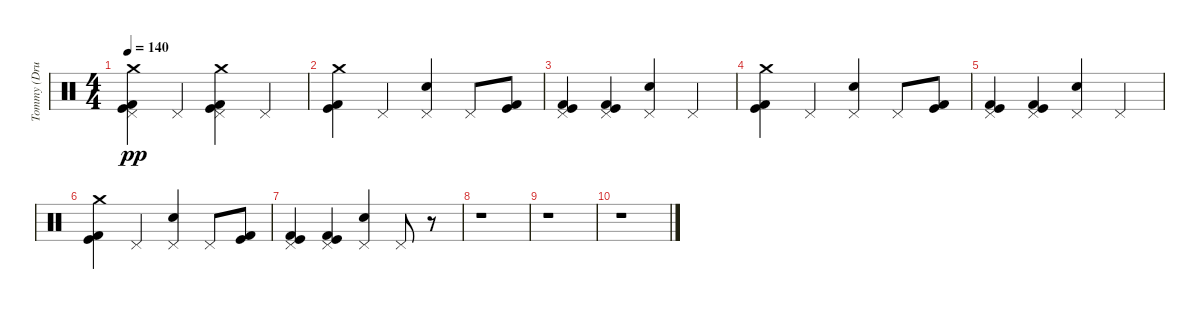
\track ("Tommy (Drums)" "Tommy (Dru") {instrument percussion}
\staff {score}
\articulation defaults
\ts (4 4)
\tempo 140
\clef neutral
\ks c
("Crash medium (hit)" "Pedal Hi-Hat (hit)" "Kick (hit)" "Kick (hit) 2").4{dy pp} "Pedal Hi-Hat (hit)".4 ("Crash medium (hit)" "Kick (hit) 2" "Kick (hit)" "Pedal Hi-Hat (hit)").4 "Pedal Hi-Hat (hit)".4 |
("Kick (hit)" "Crash medium (hit)" "Kick (hit) 2").4 "Pedal Hi-Hat (hit)".4 ("Pedal Hi-Hat (hit)" "Snare (hit) 2").4 "Pedal Hi-Hat (hit)".8 ("Kick (hit)" "Kick (hit) 2").8 |
("Pedal Hi-Hat (hit)" "Kick (hit)" "Kick (hit) 2").4 ("Pedal Hi-Hat (hit)" "Kick (hit)" "Kick (hit) 2").4 ("Snare (hit) 2" "Pedal Hi-Hat (hit)").4 "Pedal Hi-Hat (hit)".4 |
("Kick (hit)" "Crash medium (hit)" "Kick (hit) 2").4 "Pedal Hi-Hat (hit)".4 ("Pedal Hi-Hat (hit)" "Snare (hit) 2").4 "Pedal Hi-Hat (hit)".8 ("Kick (hit)" "Kick (hit) 2").8 |
("Pedal Hi-Hat (hit)" "Kick (hit)" "Kick (hit) 2").4 ("Pedal Hi-Hat (hit)" "Kick (hit)" "Kick (hit) 2").4 ("Snare (hit) 2" "Pedal Hi-Hat (hit)").4 "Pedal Hi-Hat (hit)".4 |
("Kick (hit)" "Crash medium (hit)" "Kick (hit) 2").4 "Pedal Hi-Hat (hit)".4 ("Pedal Hi-Hat (hit)" "Snare (hit) 2").4 "Pedal Hi-Hat (hit)".8 ("Kick (hit)" "Kick (hit) 2").8 |
("Pedal Hi-Hat (hit)" "Kick (hit)" "Kick (hit) 2").4 ("Pedal Hi-Hat (hit)" "Kick (hit)" "Kick (hit) 2").4 ("Snare (hit) 2" "Pedal Hi-Hat (hit)").4 "Pedal Hi-Hat (hit)".8 r.8 |
r.1 |
r.1 |
r.1
